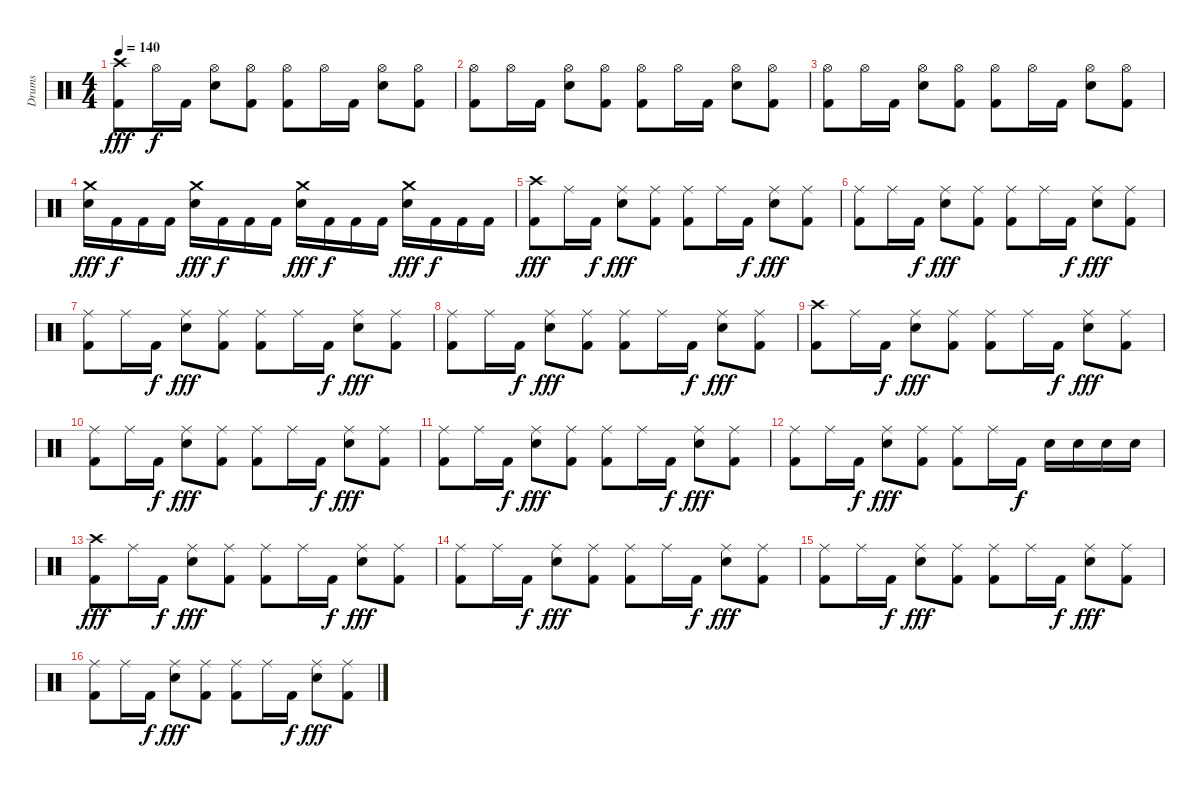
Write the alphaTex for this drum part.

\track ("Drums" "Drums") {instrument percussion}
\staff {score}
\articulation defaults
\ts (4 4)
\tempo 140
\clef neutral
\ks c
("Kick (hit) 2" "Crash high (hit)").8{dy fff} "Hi-Hat (open)".16{dy f} "Kick (hit) 2".16 ("Electric Snare (hit)" "Hi-Hat (open)").8 ("Kick (hit) 2" "Hi-Hat (open)").8 ("Kick (hit) 2" "Hi-Hat (open)").8 "Hi-Hat (open)".16 "Kick (hit) 2".16 ("Electric Snare (hit)" "Hi-Hat (open)").8 ("Kick (hit) 2" "Hi-Hat (open)").8 |
("Kick (hit) 2" "Hi-Hat (open)").8 "Hi-Hat (open)".16 "Kick (hit) 2".16 ("Electric Snare (hit)" "Hi-Hat (open)").8 ("Kick (hit) 2" "Hi-Hat (open)").8 ("Kick (hit) 2" "Hi-Hat (open)").8 "Hi-Hat (open)".16 "Kick (hit) 2".16 ("Electric Snare (hit)" "Hi-Hat (open)").8 ("Kick (hit) 2" "Hi-Hat (open)").8 |
("Kick (hit) 2" "Hi-Hat (open)").8 "Hi-Hat (open)".16 "Kick (hit) 2".16 ("Electric Snare (hit)" "Hi-Hat (open)").8 ("Kick (hit) 2" "Hi-Hat (open)").8 ("Kick (hit) 2" "Hi-Hat (open)").8 "Hi-Hat (open)".16 "Kick (hit) 2".16 ("Electric Snare (hit)" "Hi-Hat (open)").8 ("Kick (hit) 2" "Hi-Hat (open)").8 |
("Electric Snare (hit)" "Crash medium (hit)").16{dy fff} "Kick (hit) 2".16{dy f} "Kick (hit) 2".16 "Kick (hit) 2".16 ("Electric Snare (hit)" "Crash medium (hit)").16{dy fff} "Kick (hit) 2".16{dy f} "Kick (hit) 2".16 "Kick (hit) 2".16 ("Electric Snare (hit)" "Crash medium (hit)").16{dy fff} "Kick (hit) 2".16{dy f} "Kick (hit) 2".16 "Kick (hit) 2".16 ("Electric Snare (hit)" "Crash medium (hit)").16{dy fff} "Kick (hit) 2".16{dy f} "Kick (hit) 2".16 "Kick (hit) 2".16 |
("Kick (hit) 2" "Crash high (hit)").8{dy fff} "Ride (middle)".16 "Kick (hit) 2".16{dy f} ("Electric Snare (hit)" "Ride (middle)").8{dy fff} ("Kick (hit) 2" "Ride (middle)").8 ("Kick (hit) 2" "Ride (middle)").8 "Ride (middle)".16 "Kick (hit) 2".16{dy f} ("Electric Snare (hit)" "Ride (middle)").8{dy fff} ("Kick (hit) 2" "Ride (middle)").8 |
("Kick (hit) 2" "Ride (middle)").8 "Ride (middle)".16 "Kick (hit) 2".16{dy f} ("Electric Snare (hit)" "Ride (middle)").8{dy fff} ("Kick (hit) 2" "Ride (middle)").8 ("Kick (hit) 2" "Ride (middle)").8 "Ride (middle)".16 "Kick (hit) 2".16{dy f} ("Electric Snare (hit)" "Ride (middle)").8{dy fff} ("Kick (hit) 2" "Ride (middle)").8 |
("Kick (hit) 2" "Ride (middle)").8 "Ride (middle)".16 "Kick (hit) 2".16{dy f} ("Electric Snare (hit)" "Ride (middle)").8{dy fff} ("Kick (hit) 2" "Ride (middle)").8 ("Kick (hit) 2" "Ride (middle)").8 "Ride (middle)".16 "Kick (hit) 2".16{dy f} ("Electric Snare (hit)" "Ride (middle)").8{dy fff} ("Kick (hit) 2" "Ride (middle)").8 |
("Kick (hit) 2" "Ride (middle)").8 "Ride (middle)".16 "Kick (hit) 2".16{dy f} ("Electric Snare (hit)" "Ride (middle)").8{dy fff} ("Kick (hit) 2" "Ride (middle)").8 ("Kick (hit) 2" "Ride (middle)").8 "Ride (middle)".16 "Kick (hit) 2".16{dy f} ("Electric Snare (hit)" "Ride (middle)").8{dy fff} ("Kick (hit) 2" "Ride (middle)").8 |
("Kick (hit) 2" "Crash high (hit)").8 "Ride (middle)".16 "Kick (hit) 2".16{dy f} ("Electric Snare (hit)" "Ride (middle)").8{dy fff} ("Kick (hit) 2" "Ride (middle)").8 ("Kick (hit) 2" "Ride (middle)").8 "Ride (middle)".16 "Kick (hit) 2".16{dy f} ("Electric Snare (hit)" "Ride (middle)").8{dy fff} ("Kick (hit) 2" "Ride (middle)").8 |
("Kick (hit) 2" "Ride (middle)").8 "Ride (middle)".16 "Kick (hit) 2".16{dy f} ("Electric Snare (hit)" "Ride (middle)").8{dy fff} ("Kick (hit) 2" "Ride (middle)").8 ("Kick (hit) 2" "Ride (middle)").8 "Ride (middle)".16 "Kick (hit) 2".16{dy f} ("Electric Snare (hit)" "Ride (middle)").8{dy fff} ("Kick (hit) 2" "Ride (middle)").8 |
("Kick (hit) 2" "Ride (middle)").8 "Ride (middle)".16 "Kick (hit) 2".16{dy f} ("Electric Snare (hit)" "Ride (middle)").8{dy fff} ("Kick (hit) 2" "Ride (middle)").8 ("Kick (hit) 2" "Ride (middle)").8 "Ride (middle)".16 "Kick (hit) 2".16{dy f} ("Electric Snare (hit)" "Ride (middle)").8{dy fff} ("Kick (hit) 2" "Ride (middle)").8 |
("Kick (hit) 2" "Ride (middle)").8 "Ride (middle)".16 "Kick (hit) 2".16{dy f} ("Electric Snare (hit)" "Ride (middle)").8{dy fff} ("Kick (hit) 2" "Ride (middle)").8 ("Kick (hit) 2" "Ride (middle)").8 "Ride (middle)".16 "Kick (hit) 2".16{dy f} "Electric Snare (hit)".16 "Electric Snare (hit)".16 "Electric Snare (hit)".16 "Electric Snare (hit)".16 |
("Kick (hit) 2" "Crash high (hit)").8{dy fff} "Ride (middle)".16 "Kick (hit) 2".16{dy f} ("Electric Snare (hit)" "Ride (middle)").8{dy fff} ("Kick (hit) 2" "Ride (middle)").8 ("Kick (hit) 2" "Ride (middle)").8 "Ride (middle)".16 "Kick (hit) 2".16{dy f} ("Electric Snare (hit)" "Ride (middle)").8{dy fff} ("Kick (hit) 2" "Ride (middle)").8 |
("Kick (hit) 2" "Ride (middle)").8 "Ride (middle)".16 "Kick (hit) 2".16{dy f} ("Electric Snare (hit)" "Ride (middle)").8{dy fff} ("Kick (hit) 2" "Ride (middle)").8 ("Kick (hit) 2" "Ride (middle)").8 "Ride (middle)".16 "Kick (hit) 2".16{dy f} ("Electric Snare (hit)" "Ride (middle)").8{dy fff} ("Kick (hit) 2" "Ride (middle)").8 |
("Kick (hit) 2" "Ride (middle)").8 "Ride (middle)".16 "Kick (hit) 2".16{dy f} ("Electric Snare (hit)" "Ride (middle)").8{dy fff} ("Kick (hit) 2" "Ride (middle)").8 ("Kick (hit) 2" "Ride (middle)").8 "Ride (middle)".16 "Kick (hit) 2".16{dy f} ("Electric Snare (hit)" "Ride (middle)").8{dy fff} ("Kick (hit) 2" "Ride (middle)").8 |
("Kick (hit) 2" "Ride (middle)").8 "Ride (middle)".16 "Kick (hit) 2".16{dy f} ("Electric Snare (hit)" "Ride (middle)").8{dy fff} ("Kick (hit) 2" "Ride (middle)").8 ("Kick (hit) 2" "Ride (middle)").8 "Ride (middle)".16 "Kick (hit) 2".16{dy f} ("Electric Snare (hit)" "Ride (middle)").8{dy fff} ("Kick (hit) 2" "Ride (middle)").8
